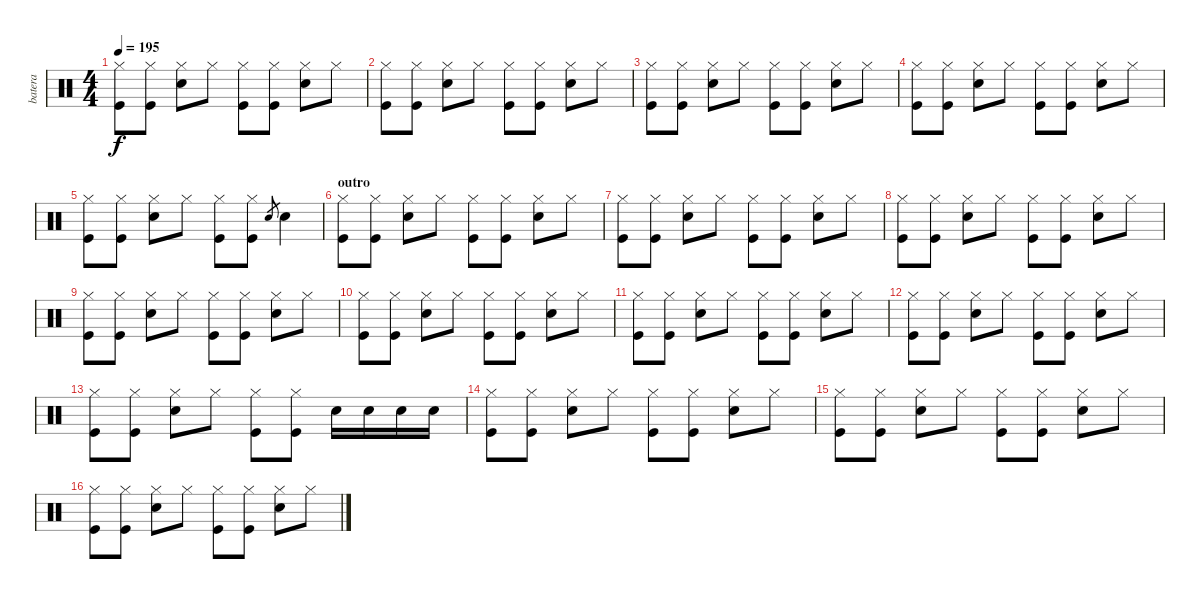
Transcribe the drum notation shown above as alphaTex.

\track ("batera" "batera") {instrument percussion}
\staff {score}
\articulation defaults
\ts (4 4)
\tempo 195
\clef neutral
\ks c
("Hi-Hat (closed)" "Kick (hit)").8{dy f} ("Hi-Hat (closed)" "Kick (hit)").8 ("Hi-Hat (closed)" "Snare (hit) 2").8 "Hi-Hat (closed)".8 ("Hi-Hat (closed)" "Kick (hit)").8 ("Hi-Hat (closed)" "Kick (hit)").8 ("Hi-Hat (closed)" "Snare (hit) 2").8 "Hi-Hat (closed)".8 |
("Hi-Hat (closed)" "Kick (hit)").8 ("Hi-Hat (closed)" "Kick (hit)").8 ("Hi-Hat (closed)" "Snare (hit) 2").8 "Hi-Hat (closed)".8 ("Hi-Hat (closed)" "Kick (hit)").8 ("Hi-Hat (closed)" "Kick (hit)").8 ("Hi-Hat (closed)" "Snare (hit) 2").8 "Hi-Hat (closed)".8 |
("Hi-Hat (closed)" "Kick (hit)").8 ("Hi-Hat (closed)" "Kick (hit)").8 ("Hi-Hat (closed)" "Snare (hit) 2").8 "Hi-Hat (closed)".8 ("Hi-Hat (closed)" "Kick (hit)").8 ("Hi-Hat (closed)" "Kick (hit)").8 ("Hi-Hat (closed)" "Snare (hit) 2").8 "Hi-Hat (closed)".8 |
("Hi-Hat (closed)" "Kick (hit)").8 ("Hi-Hat (closed)" "Kick (hit)").8 ("Hi-Hat (closed)" "Snare (hit) 2").8 "Hi-Hat (closed)".8 ("Hi-Hat (closed)" "Kick (hit)").8 ("Hi-Hat (closed)" "Kick (hit)").8 ("Hi-Hat (closed)" "Snare (hit) 2").8 "Hi-Hat (closed)".8 |
("Hi-Hat (closed)" "Kick (hit)").8 ("Hi-Hat (closed)" "Kick (hit)").8 ("Hi-Hat (closed)" "Snare (hit) 2").8 "Hi-Hat (closed)".8 ("Hi-Hat (closed)" "Kick (hit)").8 ("Hi-Hat (closed)" "Kick (hit)").8 "Snare (hit) 2"{sl}.8{gr} "Snare (hit) 2".4 |
\section ("" "outro")
("Hi-Hat (closed)" "Kick (hit)").8 ("Hi-Hat (closed)" "Kick (hit)").8 ("Hi-Hat (closed)" "Snare (hit) 2").8 "Hi-Hat (closed)".8 ("Hi-Hat (closed)" "Kick (hit)").8 ("Hi-Hat (closed)" "Kick (hit)").8 ("Hi-Hat (closed)" "Snare (hit) 2").8 "Hi-Hat (closed)".8 |
("Hi-Hat (closed)" "Kick (hit)").8 ("Hi-Hat (closed)" "Kick (hit)").8 ("Hi-Hat (closed)" "Snare (hit) 2").8 "Hi-Hat (closed)".8 ("Hi-Hat (closed)" "Kick (hit)").8 ("Hi-Hat (closed)" "Kick (hit)").8 ("Hi-Hat (closed)" "Snare (hit) 2").8 "Hi-Hat (closed)".8 |
("Hi-Hat (closed)" "Kick (hit)").8 ("Hi-Hat (closed)" "Kick (hit)").8 ("Hi-Hat (closed)" "Snare (hit) 2").8 "Hi-Hat (closed)".8 ("Hi-Hat (closed)" "Kick (hit)").8 ("Hi-Hat (closed)" "Kick (hit)").8 ("Hi-Hat (closed)" "Snare (hit) 2").8 "Hi-Hat (closed)".8 |
("Hi-Hat (closed)" "Kick (hit)").8 ("Hi-Hat (closed)" "Kick (hit)").8 ("Hi-Hat (closed)" "Snare (hit) 2").8 "Hi-Hat (closed)".8 ("Hi-Hat (closed)" "Kick (hit)").8 ("Hi-Hat (closed)" "Kick (hit)").8 ("Hi-Hat (closed)" "Snare (hit) 2").8 "Hi-Hat (closed)".8 |
("Hi-Hat (closed)" "Kick (hit)").8 ("Hi-Hat (closed)" "Kick (hit)").8 ("Hi-Hat (closed)" "Snare (hit) 2").8 "Hi-Hat (closed)".8 ("Hi-Hat (closed)" "Kick (hit)").8 ("Hi-Hat (closed)" "Kick (hit)").8 ("Hi-Hat (closed)" "Snare (hit) 2").8 "Hi-Hat (closed)".8 |
("Hi-Hat (closed)" "Kick (hit)").8 ("Hi-Hat (closed)" "Kick (hit)").8 ("Hi-Hat (closed)" "Snare (hit) 2").8 "Hi-Hat (closed)".8 ("Hi-Hat (closed)" "Kick (hit)").8 ("Hi-Hat (closed)" "Kick (hit)").8 ("Hi-Hat (closed)" "Snare (hit) 2").8 "Hi-Hat (closed)".8 |
("Hi-Hat (closed)" "Kick (hit)").8 ("Hi-Hat (closed)" "Kick (hit)").8 ("Hi-Hat (closed)" "Snare (hit) 2").8 "Hi-Hat (closed)".8 ("Hi-Hat (closed)" "Kick (hit)").8 ("Hi-Hat (closed)" "Kick (hit)").8 ("Hi-Hat (closed)" "Snare (hit) 2").8 "Hi-Hat (closed)".8 |
("Hi-Hat (closed)" "Kick (hit)").8 ("Hi-Hat (closed)" "Kick (hit)").8 ("Hi-Hat (closed)" "Snare (hit) 2").8 "Hi-Hat (closed)".8 ("Hi-Hat (closed)" "Kick (hit)").8 ("Hi-Hat (closed)" "Kick (hit)").8 "Snare (hit) 2".16 "Snare (hit) 2".16 "Snare (hit) 2".16 "Snare (hit) 2".16 |
("Hi-Hat (closed)" "Kick (hit)").8 ("Hi-Hat (closed)" "Kick (hit)").8 ("Hi-Hat (closed)" "Snare (hit) 2").8 "Hi-Hat (closed)".8 ("Hi-Hat (closed)" "Kick (hit)").8 ("Hi-Hat (closed)" "Kick (hit)").8 ("Hi-Hat (closed)" "Snare (hit) 2").8 "Hi-Hat (closed)".8 |
("Hi-Hat (closed)" "Kick (hit)").8 ("Hi-Hat (closed)" "Kick (hit)").8 ("Hi-Hat (closed)" "Snare (hit) 2").8 "Hi-Hat (closed)".8 ("Hi-Hat (closed)" "Kick (hit)").8 ("Hi-Hat (closed)" "Kick (hit)").8 ("Hi-Hat (closed)" "Snare (hit) 2").8 "Hi-Hat (closed)".8 |
("Hi-Hat (closed)" "Kick (hit)").8 ("Hi-Hat (closed)" "Kick (hit)").8 ("Hi-Hat (closed)" "Snare (hit) 2").8 "Hi-Hat (closed)".8 ("Hi-Hat (closed)" "Kick (hit)").8 ("Hi-Hat (closed)" "Kick (hit)").8 ("Hi-Hat (closed)" "Snare (hit) 2").8 "Hi-Hat (closed)".8
